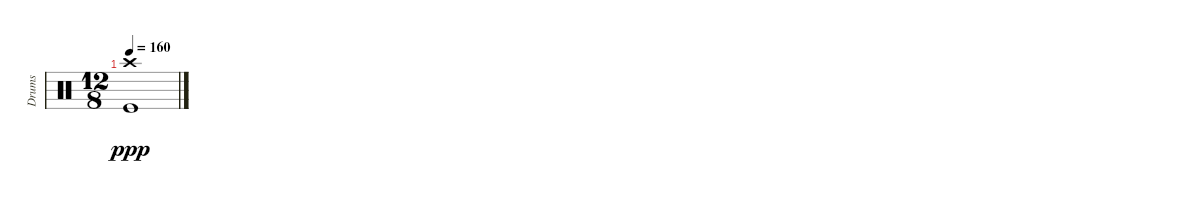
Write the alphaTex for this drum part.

\track ("Drums" "Drums") {instrument percussion}
\staff {score}
\articulation defaults
\ts (12 8)
\tempo 160
\clef neutral
\ks c
("Crash high (hit)" "Kick (hit)").1{dy ppp}
